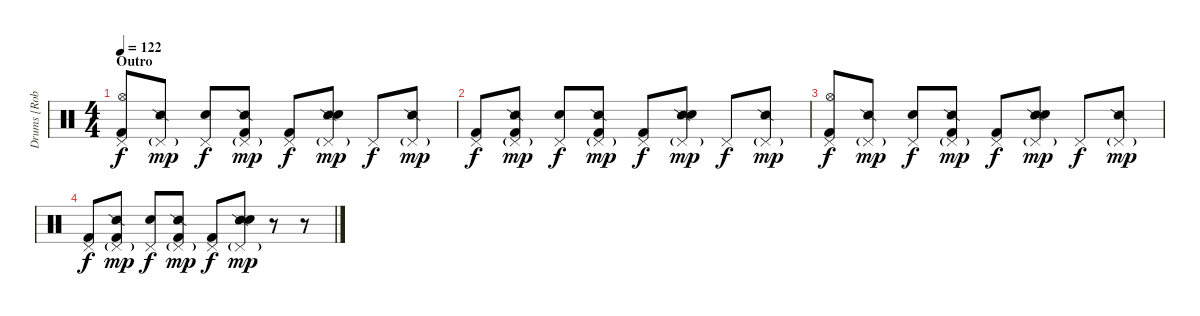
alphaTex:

\track ("Drums [Rob Bourdon]" "Drums [Rob") {solo instrument percussion}
\staff {score}
\articulation defaults
\ts (4 4)
\section ("" "Outro")
\tempo 122
\clef neutral
\ks c
("Pedal Hi-Hat (hit)" "Hi-Hat (open)" "Kick (hit) 2").8{dy f} ("Snare (side stick) 2" "Pedal Hi-Hat (hit)"{g}).8{dy mp} ("Pedal Hi-Hat (hit)" "Electric Snare (hit)").8{dy f} ("Snare (side stick) 2" "Pedal Hi-Hat (hit)"{g} "Kick (hit) 2").8{dy mp} ("Pedal Hi-Hat (hit)" "Kick (hit) 2").8{dy f} ("Snare (side stick) 2" "Pedal Hi-Hat (hit)"{g} "Electric Snare (hit)").8{dy mp} "Pedal Hi-Hat (hit)".8{dy f} ("Snare (side stick) 2" "Pedal Hi-Hat (hit)"{g}).8{dy mp} |
("Pedal Hi-Hat (hit)" "Kick (hit) 2").8{dy f} ("Snare (side stick) 2" "Pedal Hi-Hat (hit)"{g} "Kick (hit) 2").8{dy mp} ("Pedal Hi-Hat (hit)" "Electric Snare (hit)").8{dy f} ("Snare (side stick) 2" "Pedal Hi-Hat (hit)"{g} "Kick (hit) 2").8{dy mp} ("Pedal Hi-Hat (hit)" "Kick (hit) 2").8{dy f} ("Snare (side stick) 2" "Pedal Hi-Hat (hit)"{g} "Electric Snare (hit)").8{dy mp} "Pedal Hi-Hat (hit)".8{dy f} ("Snare (side stick) 2" "Pedal Hi-Hat (hit)"{g}).8{dy mp} |
("Pedal Hi-Hat (hit)" "Hi-Hat (open)" "Kick (hit) 2").8{dy f} ("Snare (side stick) 2" "Pedal Hi-Hat (hit)"{g}).8{dy mp} ("Pedal Hi-Hat (hit)" "Electric Snare (hit)").8{dy f} ("Snare (side stick) 2" "Pedal Hi-Hat (hit)"{g} "Kick (hit) 2").8{dy mp} ("Pedal Hi-Hat (hit)" "Kick (hit) 2").8{dy f} ("Snare (side stick) 2" "Pedal Hi-Hat (hit)"{g} "Electric Snare (hit)").8{dy mp} "Pedal Hi-Hat (hit)".8{dy f} ("Snare (side stick) 2" "Pedal Hi-Hat (hit)"{g}).8{dy mp} |
("Pedal Hi-Hat (hit)" "Kick (hit) 2").8{dy f} ("Snare (side stick) 2" "Pedal Hi-Hat (hit)"{g} "Kick (hit) 2").8{dy mp} ("Pedal Hi-Hat (hit)" "Electric Snare (hit)").8{dy f} ("Snare (side stick) 2" "Pedal Hi-Hat (hit)"{g} "Kick (hit) 2").8{dy mp} ("Pedal Hi-Hat (hit)" "Kick (hit) 2").8{dy f} ("Snare (side stick) 2" "Pedal Hi-Hat (hit)"{g} "Electric Snare (hit)").8{dy mp} r.8 r.8
